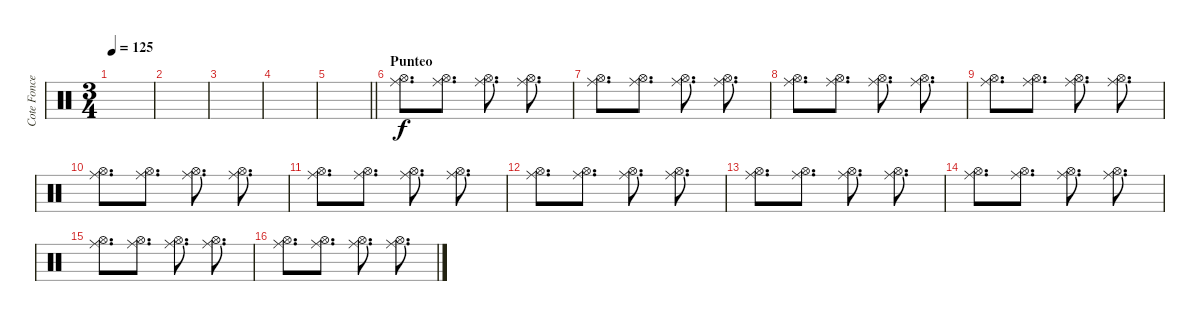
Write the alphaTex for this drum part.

\track ("Cote Foncea" "Cote Fonce") {instrument percussion}
\staff {score}
\articulation defaults
\ts (3 4)
\tempo 125
\clef neutral
\ks c
|
|
|
|
\barLineRight lightlight
|
\section ("" "Punteo")
("Ride (middle)" "Hi-Hat (open)").8{d} ("Ride (middle)" "Hi-Hat (open)").8{d} ("Ride (middle)" "Hi-Hat (open)").8{d} ("Ride (middle)" "Hi-Hat (open)").8{d} |
("Ride (middle)" "Hi-Hat (open)").8{d} ("Ride (middle)" "Hi-Hat (open)").8{d} ("Ride (middle)" "Hi-Hat (open)").8{d} ("Ride (middle)" "Hi-Hat (open)").8{d} |
("Ride (middle)" "Hi-Hat (open)").8{d} ("Ride (middle)" "Hi-Hat (open)").8{d} ("Ride (middle)" "Hi-Hat (open)").8{d} ("Ride (middle)" "Hi-Hat (open)").8{d} |
("Ride (middle)" "Hi-Hat (open)").8{d} ("Ride (middle)" "Hi-Hat (open)").8{d} ("Ride (middle)" "Hi-Hat (open)").8{d} ("Ride (middle)" "Hi-Hat (open)").8{d} |
("Ride (middle)" "Hi-Hat (open)").8{d} ("Ride (middle)" "Hi-Hat (open)").8{d} ("Ride (middle)" "Hi-Hat (open)").8{d} ("Ride (middle)" "Hi-Hat (open)").8{d} |
("Ride (middle)" "Hi-Hat (open)").8{d} ("Ride (middle)" "Hi-Hat (open)").8{d} ("Ride (middle)" "Hi-Hat (open)").8{d} ("Ride (middle)" "Hi-Hat (open)").8{d} |
("Ride (middle)" "Hi-Hat (open)").8{d} ("Ride (middle)" "Hi-Hat (open)").8{d} ("Ride (middle)" "Hi-Hat (open)").8{d} ("Ride (middle)" "Hi-Hat (open)").8{d} |
("Ride (middle)" "Hi-Hat (open)").8{d} ("Ride (middle)" "Hi-Hat (open)").8{d} ("Ride (middle)" "Hi-Hat (open)").8{d} ("Ride (middle)" "Hi-Hat (open)").8{d} |
("Ride (middle)" "Hi-Hat (open)").8{d} ("Ride (middle)" "Hi-Hat (open)").8{d} ("Ride (middle)" "Hi-Hat (open)").8{d} ("Ride (middle)" "Hi-Hat (open)").8{d} |
("Ride (middle)" "Hi-Hat (open)").8{d} ("Ride (middle)" "Hi-Hat (open)").8{d} ("Ride (middle)" "Hi-Hat (open)").8{d} ("Ride (middle)" "Hi-Hat (open)").8{d} |
("Ride (middle)" "Hi-Hat (open)").8{d} ("Ride (middle)" "Hi-Hat (open)").8{d} ("Ride (middle)" "Hi-Hat (open)").8{d} ("Ride (middle)" "Hi-Hat (open)").8{d}
